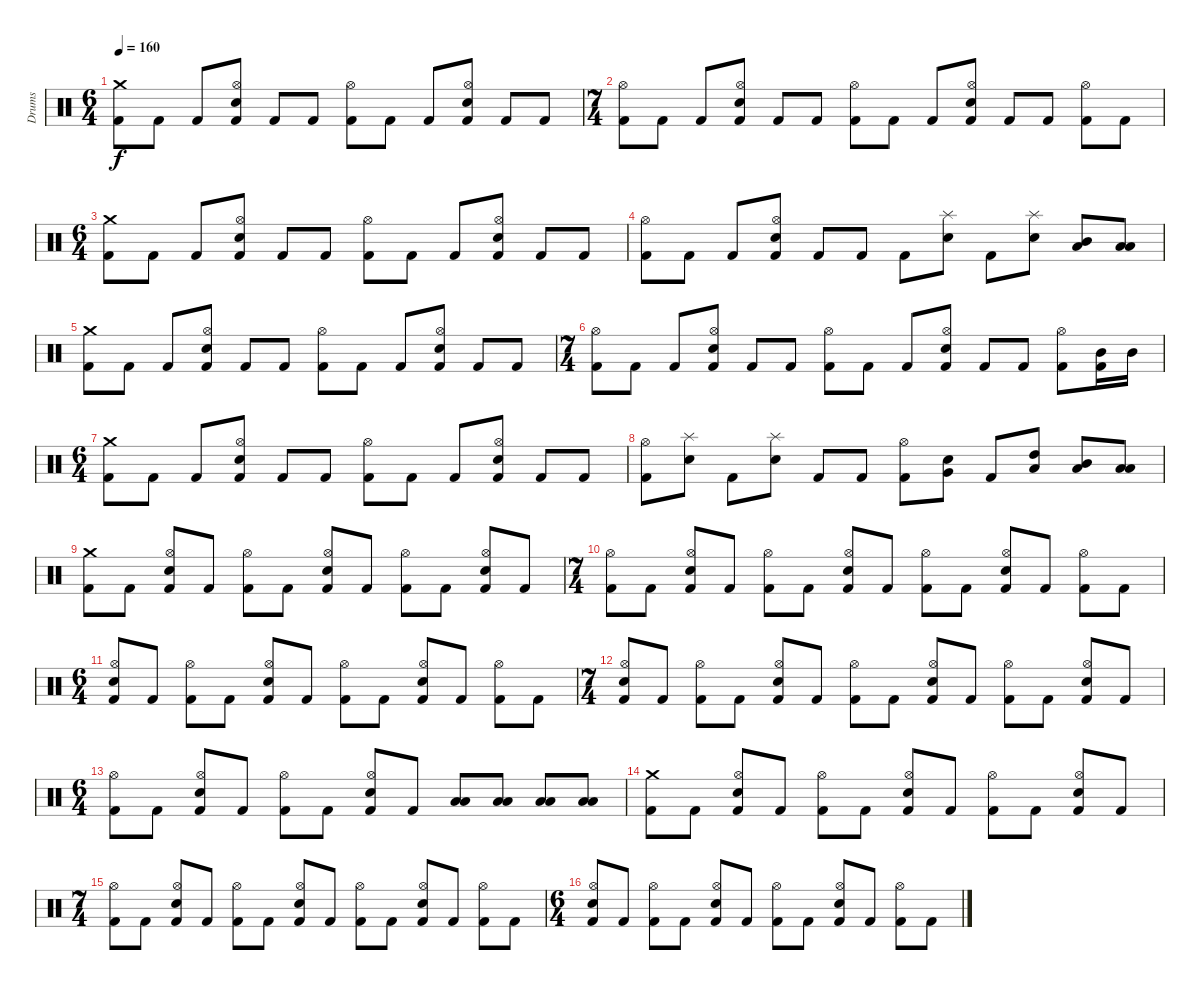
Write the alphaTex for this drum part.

\track ("Drums" "Drums") {instrument percussion}
\staff {score}
\articulation defaults
\ts (6 4)
\tempo 160
\clef neutral
\ks c
("Crash medium (hit)" "Kick (hit) 2").8{dy f} "Kick (hit) 2".8 "Kick (hit) 2".8 ("Hi-Hat (open)" "Electric Snare (hit)" "Kick (hit) 2").8 "Kick (hit) 2".8 "Kick (hit) 2".8 ("Hi-Hat (open)" "Kick (hit) 2").8 "Kick (hit) 2".8 "Kick (hit) 2".8 ("Hi-Hat (open)" "Electric Snare (hit)" "Kick (hit) 2").8 "Kick (hit) 2".8 "Kick (hit) 2".8 |
\ts (7 4)
("Hi-Hat (open)" "Kick (hit) 2").8 "Kick (hit) 2".8 "Kick (hit) 2".8 ("Hi-Hat (open)" "Electric Snare (hit)" "Kick (hit) 2").8 "Kick (hit) 2".8 "Kick (hit) 2".8 ("Hi-Hat (open)" "Kick (hit) 2").8 "Kick (hit) 2".8 "Kick (hit) 2".8 ("Hi-Hat (open)" "Electric Snare (hit)" "Kick (hit) 2").8 "Kick (hit) 2".8 "Kick (hit) 2".8 ("Hi-Hat (open)" "Kick (hit) 2").8 "Kick (hit) 2".8 |
\ts (6 4)
("Crash medium (hit)" "Kick (hit) 2").8 "Kick (hit) 2".8 "Kick (hit) 2".8 ("Hi-Hat (open)" "Electric Snare (hit)" "Kick (hit) 2").8 "Kick (hit) 2".8 "Kick (hit) 2".8 ("Hi-Hat (open)" "Kick (hit) 2").8 "Kick (hit) 2".8 "Kick (hit) 2".8 ("Hi-Hat (open)" "Electric Snare (hit)" "Kick (hit) 2").8 "Kick (hit) 2".8 "Kick (hit) 2".8 |
("Hi-Hat (open)" "Kick (hit) 2").8 "Kick (hit) 2".8 "Kick (hit) 2".8 ("Hi-Hat (open)" "Electric Snare (hit)" "Kick (hit) 2").8 "Kick (hit) 2".8 "Kick (hit) 2".8 "Kick (hit) 2".8 ("Splash (hit)" "Electric Snare (hit)").8 "Kick (hit) 2".8 ("Splash (hit)" "Electric Snare (hit)").8 ("Mid Tom (hit)" "Low Floor Tom (hit)").8 ("Low Tom (hit)" "Low Floor Tom (hit)").8 |
("Crash medium (hit)" "Kick (hit) 2").8 "Kick (hit) 2".8 "Kick (hit) 2".8 ("Hi-Hat (open)" "Electric Snare (hit)" "Kick (hit) 2").8 "Kick (hit) 2".8 "Kick (hit) 2".8 ("Hi-Hat (open)" "Kick (hit) 2").8 "Kick (hit) 2".8 "Kick (hit) 2".8 ("Hi-Hat (open)" "Electric Snare (hit)" "Kick (hit) 2").8 "Kick (hit) 2".8 "Kick (hit) 2".8 |
\ts (7 4)
("Hi-Hat (open)" "Kick (hit) 2").8 "Kick (hit) 2".8 "Kick (hit) 2".8 ("Hi-Hat (open)" "Electric Snare (hit)" "Kick (hit) 2").8 "Kick (hit) 2".8 "Kick (hit) 2".8 ("Hi-Hat (open)" "Kick (hit) 2").8 "Kick (hit) 2".8 "Kick (hit) 2".8 ("Hi-Hat (open)" "Electric Snare (hit)" "Kick (hit) 2").8 "Kick (hit) 2".8 "Kick (hit) 2".8 ("Hi-Hat (open)" "Kick (hit) 2").8 ("Mid Tom (hit)" "Kick (hit) 2").16 "Mid Tom (hit)".16 |
\ts (6 4)
("Crash medium (hit)" "Kick (hit) 2").8 "Kick (hit) 2".8 "Kick (hit) 2".8 ("Hi-Hat (open)" "Electric Snare (hit)" "Kick (hit) 2").8 "Kick (hit) 2".8 "Kick (hit) 2".8 ("Hi-Hat (open)" "Kick (hit) 2").8 "Kick (hit) 2".8 "Kick (hit) 2".8 ("Hi-Hat (open)" "Electric Snare (hit)" "Kick (hit) 2").8 "Kick (hit) 2".8 "Kick (hit) 2".8 |
("Hi-Hat (open)" "Kick (hit) 2").8 ("Splash (hit)" "Electric Snare (hit)").8 "Kick (hit) 2".8 ("Splash (hit)" "Electric Snare (hit)").8 "Kick (hit) 2".8 "Kick (hit) 2".8 ("Hi-Hat (open)" "Kick (hit) 2").8 ("Very Low Tom (hit)" "Electric Snare (hit)").8 "Kick (hit) 2".8 ("High Tom (hit)" "Low Floor Tom (hit)").8 ("Mid Tom (hit)" "Low Floor Tom (hit)").8 ("Low Tom (hit)" "Low Floor Tom (hit)").8 |
("Crash medium (hit)" "Kick (hit) 2").8 "Kick (hit) 2".8 ("Hi-Hat (open)" "Electric Snare (hit)" "Kick (hit) 2").8 "Kick (hit) 2".8 ("Hi-Hat (open)" "Kick (hit) 2").8 "Kick (hit) 2".8 ("Hi-Hat (open)" "Electric Snare (hit)" "Kick (hit) 2").8 "Kick (hit) 2".8 ("Hi-Hat (open)" "Kick (hit) 2").8 "Kick (hit) 2".8 ("Hi-Hat (open)" "Electric Snare (hit)" "Kick (hit) 2").8 "Kick (hit) 2".8 |
\ts (7 4)
("Hi-Hat (open)" "Kick (hit) 2").8 "Kick (hit) 2".8 ("Hi-Hat (open)" "Electric Snare (hit)" "Kick (hit) 2").8 "Kick (hit) 2".8 ("Hi-Hat (open)" "Kick (hit) 2").8 "Kick (hit) 2".8 ("Hi-Hat (open)" "Electric Snare (hit)" "Kick (hit) 2").8 "Kick (hit) 2".8 ("Hi-Hat (open)" "Kick (hit) 2").8 "Kick (hit) 2".8 ("Hi-Hat (open)" "Electric Snare (hit)" "Kick (hit) 2").8 "Kick (hit) 2".8 ("Hi-Hat (open)" "Kick (hit) 2").8 "Kick (hit) 2".8 |
\ts (6 4)
("Hi-Hat (open)" "Electric Snare (hit)" "Kick (hit) 2").8 "Kick (hit) 2".8 ("Hi-Hat (open)" "Kick (hit) 2").8 "Kick (hit) 2".8 ("Hi-Hat (open)" "Electric Snare (hit)" "Kick (hit) 2").8 "Kick (hit) 2".8 ("Hi-Hat (open)" "Kick (hit) 2").8 "Kick (hit) 2".8 ("Electric Snare (hit)" "Hi-Hat (open)" "Kick (hit) 2").8 "Kick (hit) 2".8 ("Hi-Hat (open)" "Kick (hit) 2").8 "Kick (hit) 2".8 |
\ts (7 4)
("Electric Snare (hit)" "Hi-Hat (open)" "Kick (hit) 2").8 "Kick (hit) 2".8 ("Hi-Hat (open)" "Kick (hit) 2").8 "Kick (hit) 2".8 ("Electric Snare (hit)" "Hi-Hat (open)" "Kick (hit) 2").8 "Kick (hit) 2".8 ("Hi-Hat (open)" "Kick (hit) 2").8 "Kick (hit) 2".8 ("Electric Snare (hit)" "Hi-Hat (open)" "Kick (hit) 2").8 "Kick (hit) 2".8 ("Hi-Hat (open)" "Kick (hit) 2").8 "Kick (hit) 2".8 ("Electric Snare (hit)" "Hi-Hat (open)" "Kick (hit) 2").8 "Kick (hit) 2".8 |
\ts (6 4)
("Hi-Hat (open)" "Kick (hit) 2").8 "Kick (hit) 2".8 ("Electric Snare (hit)" "Hi-Hat (open)" "Kick (hit) 2").8 "Kick (hit) 2".8 ("Hi-Hat (open)" "Kick (hit) 2").8 "Kick (hit) 2".8 ("Electric Snare (hit)" "Hi-Hat (open)" "Kick (hit) 2").8 "Kick (hit) 2".8 ("Low Tom (hit)" "Low Floor Tom (hit)").8 ("Low Tom (hit)" "Low Floor Tom (hit)").8 ("Low Tom (hit)" "Low Floor Tom (hit)").8 ("Low Tom (hit)" "Low Floor Tom (hit)").8 |
("Crash medium (hit)" "Kick (hit) 2").8 "Kick (hit) 2".8 ("Hi-Hat (open)" "Electric Snare (hit)" "Kick (hit) 2").8 "Kick (hit) 2".8 ("Hi-Hat (open)" "Kick (hit) 2").8 "Kick (hit) 2".8 ("Hi-Hat (open)" "Electric Snare (hit)" "Kick (hit) 2").8 "Kick (hit) 2".8 ("Hi-Hat (open)" "Kick (hit) 2").8 "Kick (hit) 2".8 ("Hi-Hat (open)" "Electric Snare (hit)" "Kick (hit) 2").8 "Kick (hit) 2".8 |
\ts (7 4)
("Hi-Hat (open)" "Kick (hit) 2").8 "Kick (hit) 2".8 ("Hi-Hat (open)" "Electric Snare (hit)" "Kick (hit) 2").8 "Kick (hit) 2".8 ("Hi-Hat (open)" "Kick (hit) 2").8 "Kick (hit) 2".8 ("Hi-Hat (open)" "Electric Snare (hit)" "Kick (hit) 2").8 "Kick (hit) 2".8 ("Hi-Hat (open)" "Kick (hit) 2").8 "Kick (hit) 2".8 ("Hi-Hat (open)" "Electric Snare (hit)" "Kick (hit) 2").8 "Kick (hit) 2".8 ("Hi-Hat (open)" "Kick (hit) 2").8 "Kick (hit) 2".8 |
\ts (6 4)
("Hi-Hat (open)" "Electric Snare (hit)" "Kick (hit) 2").8 "Kick (hit) 2".8 ("Hi-Hat (open)" "Kick (hit) 2").8 "Kick (hit) 2".8 ("Hi-Hat (open)" "Electric Snare (hit)" "Kick (hit) 2").8 "Kick (hit) 2".8 ("Hi-Hat (open)" "Kick (hit) 2").8 "Kick (hit) 2".8 ("Hi-Hat (open)" "Electric Snare (hit)" "Kick (hit) 2").8 "Kick (hit) 2".8 ("Hi-Hat (open)" "Kick (hit) 2").8 "Kick (hit) 2".8
